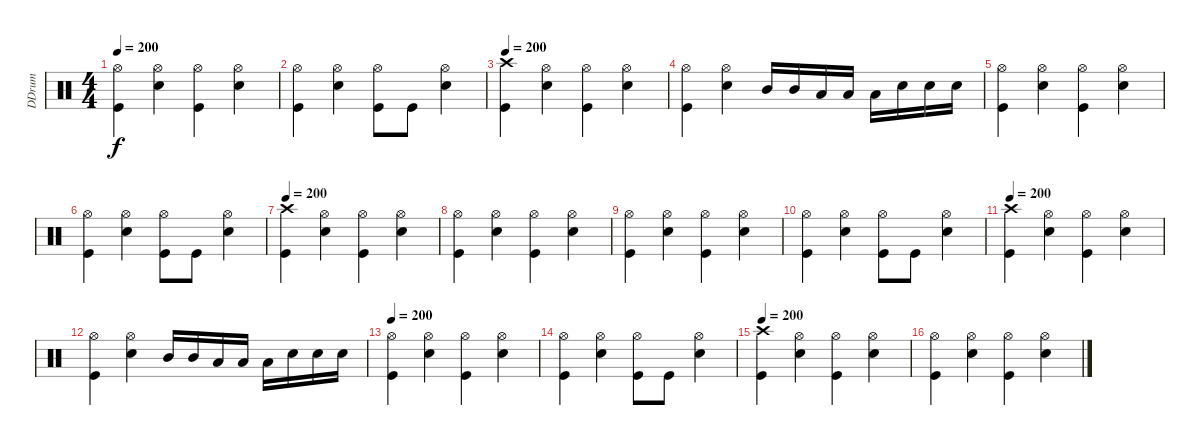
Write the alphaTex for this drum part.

\track ("DDrum" "DDrum") {instrument percussion}
\staff {score}
\articulation defaults
\ts (4 4)
\tempo 200
\clef neutral
\ks c
("Hi-Hat (open)" "Kick (hit)").4{dy f} ("Hi-Hat (open)" "Electric Snare (hit)").4 ("Hi-Hat (open)" "Kick (hit)").4 ("Hi-Hat (open)" "Electric Snare (hit)").4 |
("Hi-Hat (open)" "Kick (hit)").4 ("Hi-Hat (open)" "Electric Snare (hit)").4 ("Hi-Hat (open)" "Kick (hit)").8 "Kick (hit)".8 ("Hi-Hat (open)" "Electric Snare (hit)").4 |
\tempo 200
("Crash high (hit)" "Kick (hit)").4 ("Hi-Hat (open)" "Electric Snare (hit)").4 ("Hi-Hat (open)" "Kick (hit)").4 ("Hi-Hat (open)" "Electric Snare (hit)").4 |
("Hi-Hat (open)" "Kick (hit)").4 ("Hi-Hat (open)" "Electric Snare (hit)").4 "Mid Tom (hit)".16 "Mid Tom (hit)".16 "Low Tom (hit)".16 "Low Tom (hit)".16 "Low Tom (hit)".16 "Electric Snare (hit)".16 "Electric Snare (hit)".16 "Electric Snare (hit)".16 |
("Hi-Hat (open)" "Kick (hit)").4 ("Hi-Hat (open)" "Electric Snare (hit)").4 ("Hi-Hat (open)" "Kick (hit)").4 ("Hi-Hat (open)" "Electric Snare (hit)").4 |
("Hi-Hat (open)" "Kick (hit)").4 ("Hi-Hat (open)" "Electric Snare (hit)").4 ("Hi-Hat (open)" "Kick (hit)").8 "Kick (hit)".8 ("Hi-Hat (open)" "Electric Snare (hit)").4 |
\tempo 200
("Crash high (hit)" "Kick (hit)").4 ("Hi-Hat (open)" "Electric Snare (hit)").4 ("Hi-Hat (open)" "Kick (hit)").4 ("Hi-Hat (open)" "Electric Snare (hit)").4 |
("Hi-Hat (open)" "Kick (hit)").4 ("Hi-Hat (open)" "Electric Snare (hit)").4 ("Hi-Hat (open)" "Kick (hit)").4 ("Hi-Hat (open)" "Electric Snare (hit)").4 |
("Hi-Hat (open)" "Kick (hit)").4 ("Hi-Hat (open)" "Electric Snare (hit)").4 ("Hi-Hat (open)" "Kick (hit)").4 ("Hi-Hat (open)" "Electric Snare (hit)").4 |
("Hi-Hat (open)" "Kick (hit)").4 ("Hi-Hat (open)" "Electric Snare (hit)").4 ("Hi-Hat (open)" "Kick (hit)").8 "Kick (hit)".8 ("Hi-Hat (open)" "Electric Snare (hit)").4 |
\tempo 200
("Crash high (hit)" "Kick (hit)").4 ("Hi-Hat (open)" "Electric Snare (hit)").4 ("Hi-Hat (open)" "Kick (hit)").4 ("Hi-Hat (open)" "Electric Snare (hit)").4 |
("Hi-Hat (open)" "Kick (hit)").4 ("Hi-Hat (open)" "Electric Snare (hit)").4 "Mid Tom (hit)".16 "Mid Tom (hit)".16 "Low Tom (hit)".16 "Low Tom (hit)".16 "Low Tom (hit)".16 "Electric Snare (hit)".16 "Electric Snare (hit)".16 "Electric Snare (hit)".16 |
\tempo 200
("Hi-Hat (open)" "Kick (hit)").4 ("Hi-Hat (open)" "Electric Snare (hit)").4 ("Hi-Hat (open)" "Kick (hit)").4 ("Hi-Hat (open)" "Electric Snare (hit)").4 |
("Hi-Hat (open)" "Kick (hit)").4 ("Hi-Hat (open)" "Electric Snare (hit)").4 ("Hi-Hat (open)" "Kick (hit)").8 "Kick (hit)".8 ("Hi-Hat (open)" "Electric Snare (hit)").4 |
\tempo 200
("Crash high (hit)" "Kick (hit)").4 ("Hi-Hat (open)" "Electric Snare (hit)").4 ("Hi-Hat (open)" "Kick (hit)").4 ("Hi-Hat (open)" "Electric Snare (hit)").4 |
("Hi-Hat (open)" "Kick (hit)").4 ("Hi-Hat (open)" "Electric Snare (hit)").4 ("Hi-Hat (open)" "Kick (hit)").4 ("Hi-Hat (open)" "Electric Snare (hit)").4
